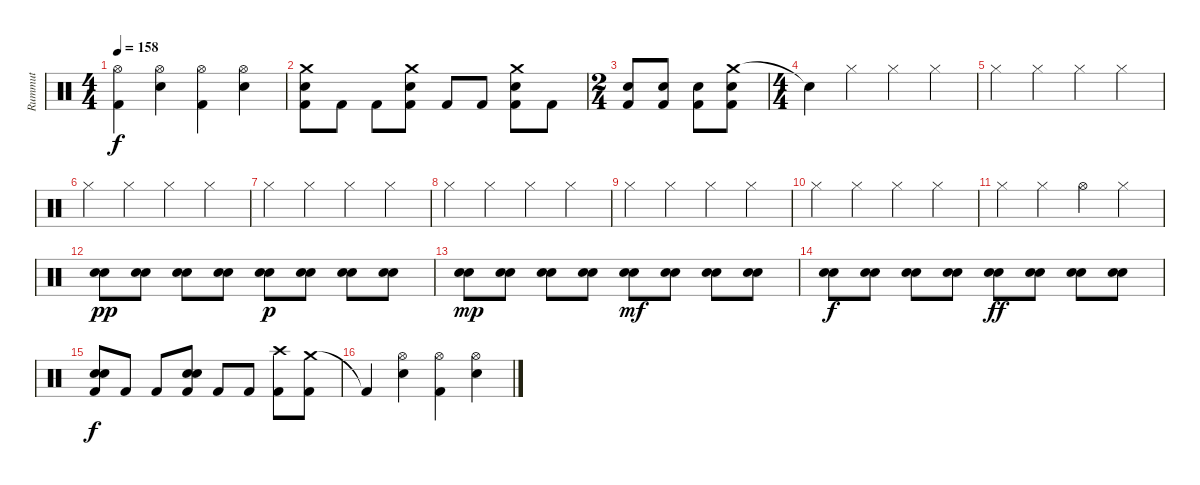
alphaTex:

\track ("Rummut" "Rummut") {instrument percussion}
\staff {score}
\articulation defaults
\ts (4 4)
\tempo 158
\clef neutral
\ks c
("Hi-Hat (open)" "Kick (hit) 2").4{dy f} ("Hi-Hat (open)" "Electric Snare (hit)").4 ("Hi-Hat (open)" "Kick (hit) 2").4 ("Hi-Hat (open)" "Electric Snare (hit)").4 |
("Crash medium (hit)" "Electric Snare (hit)" "Kick (hit) 2").8 "Kick (hit) 2".8 "Kick (hit) 2".8 ("Crash medium (hit)" "Electric Snare (hit)" "Kick (hit) 2").8 "Kick (hit) 2".8 "Kick (hit) 2".8 ("Crash medium (hit)" "Electric Snare (hit)" "Kick (hit) 2").8 "Kick (hit) 2".8 |
\ts (2 4)
("Electric Snare (hit)" "Kick (hit) 2").8 ("Electric Snare (hit)" "Kick (hit) 2").8 ("Electric Snare (hit)" "Kick (hit) 2").8 ("Crash medium (hit)" "Electric Snare (hit)" "Kick (hit) 2").8 |
\ts (4 4)
"Snare (hit)"{t}.4 "Hi-Hat (closed)".4 "Hi-Hat (closed)".4 "Hi-Hat (closed)".4 |
"Hi-Hat (closed)".4 "Hi-Hat (closed)".4 "Hi-Hat (closed)".4 "Hi-Hat (closed)".4 |
"Hi-Hat (closed)".4 "Hi-Hat (closed)".4 "Hi-Hat (closed)".4 "Hi-Hat (closed)".4 |
"Hi-Hat (closed)".4 "Hi-Hat (closed)".4 "Hi-Hat (closed)".4 "Hi-Hat (closed)".4 |
"Hi-Hat (closed)".4 "Hi-Hat (closed)".4 "Hi-Hat (closed)".4 "Hi-Hat (closed)".4 |
"Hi-Hat (closed)".4 "Hi-Hat (closed)".4 "Hi-Hat (closed)".4 "Hi-Hat (closed)".4 |
"Hi-Hat (closed)".4 "Hi-Hat (closed)".4 "Hi-Hat (closed)".4 "Hi-Hat (closed)".4 |
"Hi-Hat (closed)".4 "Hi-Hat (closed)".4 "Hi-Hat (open)".4 "Hi-Hat (closed)".4 |
("Electric Snare (hit)" "Electric Snare (hit)").8{dy pp} ("Electric Snare (hit)" "Electric Snare (hit)").8 ("Electric Snare (hit)" "Electric Snare (hit)").8 ("Electric Snare (hit)" "Electric Snare (hit)").8 ("Electric Snare (hit)" "Electric Snare (hit)").8{dy p} ("Electric Snare (hit)" "Electric Snare (hit)").8 ("Electric Snare (hit)" "Electric Snare (hit)").8 ("Electric Snare (hit)" "Electric Snare (hit)").8 |
("Electric Snare (hit)" "Electric Snare (hit)").8{dy mp} ("Electric Snare (hit)" "Electric Snare (hit)").8 ("Electric Snare (hit)" "Electric Snare (hit)").8 ("Electric Snare (hit)" "Electric Snare (hit)").8 ("Electric Snare (hit)" "Electric Snare (hit)").8{dy mf} ("Electric Snare (hit)" "Electric Snare (hit)").8 ("Electric Snare (hit)" "Electric Snare (hit)").8 ("Electric Snare (hit)" "Electric Snare (hit)").8 |
("Electric Snare (hit)" "Electric Snare (hit)").8{dy f} ("Electric Snare (hit)" "Electric Snare (hit)").8 ("Electric Snare (hit)" "Electric Snare (hit)").8 ("Electric Snare (hit)" "Electric Snare (hit)").8 ("Electric Snare (hit)" "Electric Snare (hit)").8{dy ff} ("Electric Snare (hit)" "Electric Snare (hit)").8 ("Electric Snare (hit)" "Electric Snare (hit)").8 ("Electric Snare (hit)" "Electric Snare (hit)").8 |
("Electric Snare (hit)" "Electric Snare (hit)" "Kick (hit) 2").8{dy f} "Kick (hit) 2".8 "Kick (hit) 2".8 ("Electric Snare (hit)" "Electric Snare (hit)" "Kick (hit) 2").8 "Kick (hit) 2".8 "Kick (hit) 2".8 ("Crash high (hit)" "Kick (hit) 2").8 ("Crash medium (hit)" "Kick (hit) 2").8 |
"Kick (hit) 2"{t}.4 ("Hi-Hat (open)" "Electric Snare (hit)").4 ("Hi-Hat (open)" "Kick (hit) 2").4 ("Hi-Hat (open)" "Electric Snare (hit)").4
